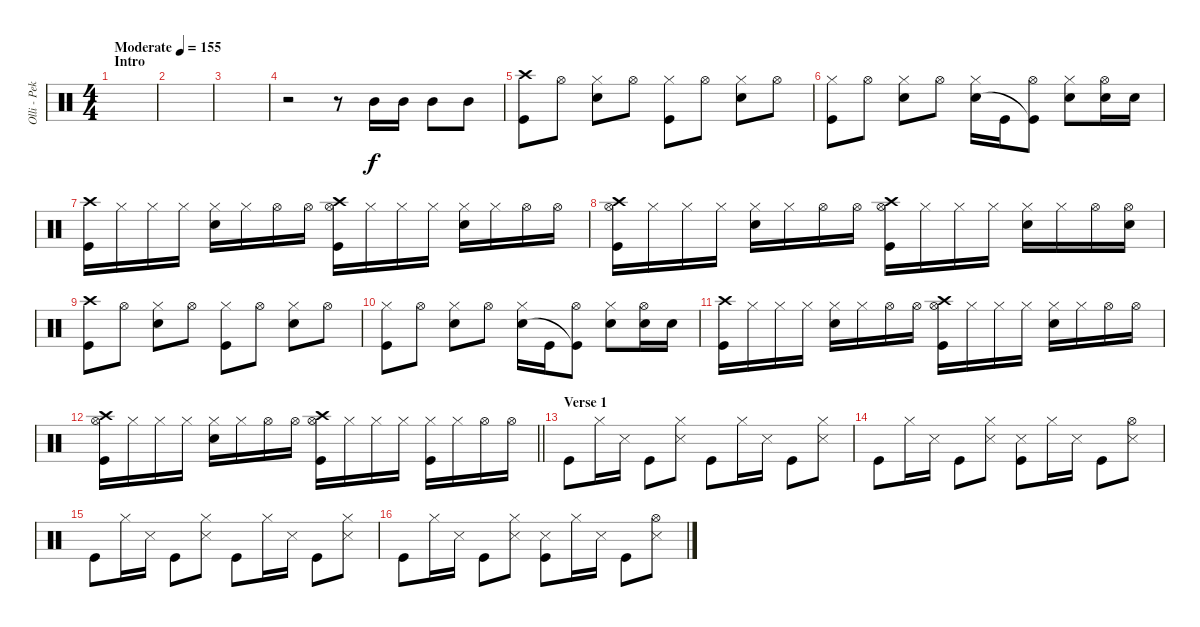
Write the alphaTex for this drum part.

\track ("Olli - Pekka" "Olli - Pek") {instrument percussion}
\staff {score}
\articulation defaults
\ts (4 4)
\section ("" "Intro")
\tempo (155 "Moderate")
\clef neutral
\ks c
|
|
|
r.2 r.8 "Mid Tom (hit)".16 "Mid Tom (hit)".16 "Mid Tom (hit)".8 "Mid Tom (hit)".8 |
("Crash high (hit)" "Kick (hit)").8 "Hi-Hat (open)".8 ("Hi-Hat (closed)" "Snare (hit) 2").8 "Hi-Hat (open)".8 ("Hi-Hat (closed)" "Kick (hit)").8 "Hi-Hat (open)".8 ("Hi-Hat (closed)" "Snare (hit) 2").8 "Hi-Hat (open)".8 |
("Hi-Hat (closed)" "Kick (hit)").8 "Hi-Hat (open)".8 ("Hi-Hat (closed)" "Snare (hit) 2").8 "Hi-Hat (open)".8 ("Hi-Hat (closed)" "Snare (hit) 2").16 "Kick (hit)".16 ("Hi-Hat (open)" "Kick (hit)"{t}).8 ("Hi-Hat (closed)" "Snare (hit) 2").8 ("Hi-Hat (open)" "Snare (hit) 2").16 "Snare (hit) 2".16 |
("Crash high (hit)" "Kick (hit)").16 "Hi-Hat (closed)".16 "Hi-Hat (closed)".16 "Hi-Hat (closed)".16 ("Hi-Hat (closed)" "Snare (hit) 2").16 "Hi-Hat (closed)".16 "Hi-Hat (open)".16 "Hi-Hat (open)".16 ("Crash high (hit)" "Hi-Hat (open)" "Kick (hit)").16 "Hi-Hat (closed)".16 "Hi-Hat (closed)".16 "Hi-Hat (closed)".16 ("Hi-Hat (closed)" "Snare (hit) 2").16 "Hi-Hat (closed)".16 "Hi-Hat (open)".16 "Hi-Hat (open)".16 |
("Crash high (hit)" "Hi-Hat (open)" "Kick (hit)").16 "Hi-Hat (closed)".16 "Hi-Hat (closed)".16 "Hi-Hat (closed)".16 ("Hi-Hat (closed)" "Snare (hit) 2").16 "Hi-Hat (closed)".16 "Hi-Hat (open)".16 "Hi-Hat (open)".16 ("Crash high (hit)" "Hi-Hat (open)" "Kick (hit)").16 "Hi-Hat (closed)".16 "Hi-Hat (closed)".16 "Hi-Hat (closed)".16 ("Hi-Hat (closed)" "Snare (hit) 2").16 "Hi-Hat (closed)".16 "Hi-Hat (open)".16 ("Hi-Hat (open)" "Snare (hit) 2").16 |
("Crash high (hit)" "Kick (hit)").8 "Hi-Hat (open)".8 ("Hi-Hat (closed)" "Snare (hit) 2").8 "Hi-Hat (open)".8 ("Hi-Hat (closed)" "Kick (hit)").8 "Hi-Hat (open)".8 ("Hi-Hat (closed)" "Snare (hit) 2").8 "Hi-Hat (open)".8 |
("Hi-Hat (closed)" "Kick (hit)").8 "Hi-Hat (open)".8 ("Hi-Hat (closed)" "Snare (hit) 2").8 "Hi-Hat (open)".8 ("Hi-Hat (closed)" "Snare (hit) 2").16 "Kick (hit)".16 ("Hi-Hat (open)" "Kick (hit)"{t}).8 ("Hi-Hat (closed)" "Snare (hit) 2").8 ("Hi-Hat (open)" "Snare (hit) 2").16 "Snare (hit) 2".16 |
("Crash high (hit)" "Kick (hit)").16 "Hi-Hat (closed)".16 "Hi-Hat (closed)".16 "Hi-Hat (closed)".16 ("Hi-Hat (closed)" "Snare (hit) 2").16 "Hi-Hat (closed)".16 "Hi-Hat (open)".16 "Hi-Hat (open)".16 ("Crash high (hit)" "Hi-Hat (open)" "Kick (hit)").16 "Hi-Hat (closed)".16 "Hi-Hat (closed)".16 "Hi-Hat (closed)".16 ("Hi-Hat (closed)" "Snare (hit) 2").16 "Hi-Hat (closed)".16 "Hi-Hat (open)".16 "Hi-Hat (open)".16 |
\barLineRight lightlight
("Crash high (hit)" "Hi-Hat (open)" "Kick (hit)").16 "Hi-Hat (closed)".16 "Hi-Hat (closed)".16 "Hi-Hat (closed)".16 ("Hi-Hat (closed)" "Snare (hit) 2").16 "Hi-Hat (closed)".16 "Hi-Hat (open)".16 "Hi-Hat (open)".16 ("Crash high (hit)" "Hi-Hat (open)" "Kick (hit)").16 "Hi-Hat (closed)".16 "Hi-Hat (closed)".16 "Hi-Hat (closed)".16 ("Hi-Hat (closed)" "Kick (hit)").16 "Hi-Hat (closed)".16 "Hi-Hat (open)".16 "Hi-Hat (open)".16 |
\section ("" "Verse 1")
"Kick (hit)".8 "Hi-Hat (closed)".16 "Snare (side stick) 3".16 "Kick (hit)".8 ("Hi-Hat (closed)" "Snare (side stick) 3").8 "Kick (hit)".8 "Hi-Hat (closed)".16 "Snare (side stick) 3".16 "Kick (hit)".8 ("Hi-Hat (closed)" "Snare (side stick) 3").8 |
"Kick (hit)".8 "Hi-Hat (closed)".16 "Snare (side stick) 3".16 "Kick (hit)".8 ("Hi-Hat (closed)" "Snare (side stick) 3").8 ("Snare (side stick) 3" "Kick (hit)").8 "Hi-Hat (closed)".16 "Snare (side stick) 3".16 "Kick (hit)".8 ("Hi-Hat (open)" "Snare (side stick) 3").8 |
"Kick (hit)".8 "Hi-Hat (closed)".16 "Snare (side stick) 3".16 "Kick (hit)".8 ("Hi-Hat (closed)" "Snare (side stick) 3").8 "Kick (hit)".8 "Hi-Hat (closed)".16 "Snare (side stick) 3".16 "Kick (hit)".8 ("Hi-Hat (closed)" "Snare (side stick) 3").8 |
"Kick (hit)".8 "Hi-Hat (closed)".16 "Snare (side stick) 3".16 "Kick (hit)".8 ("Hi-Hat (closed)" "Snare (side stick) 3").8 ("Snare (side stick) 3" "Kick (hit)").8 "Hi-Hat (closed)".16 "Snare (side stick) 3".16 "Kick (hit)".8 ("Hi-Hat (open)" "Snare (side stick) 3").8
